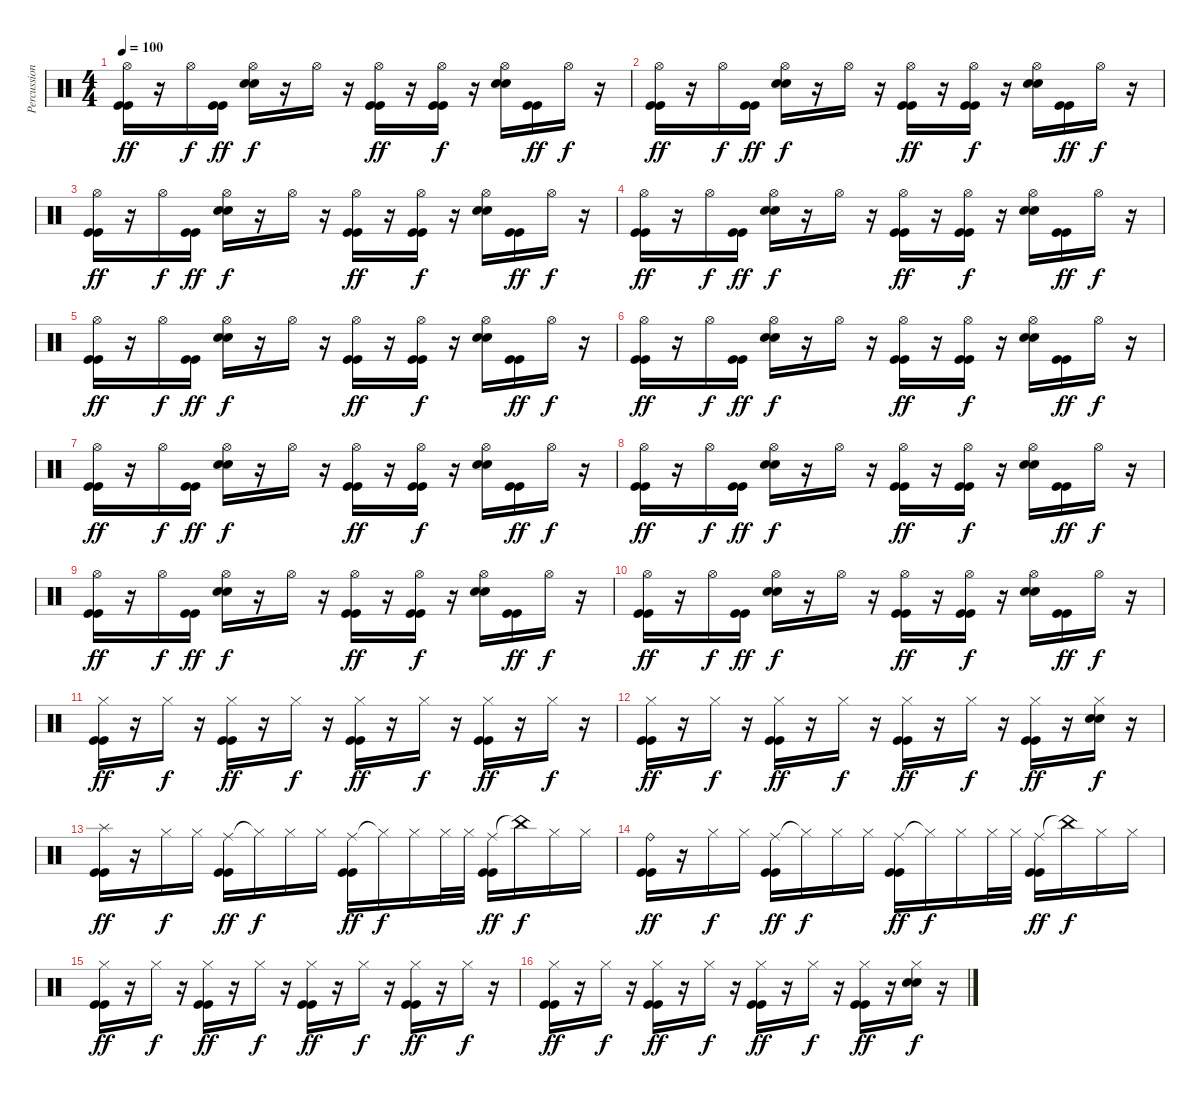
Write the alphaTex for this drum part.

\track ("Percussions" "Percussion") {instrument percussion}
\staff
\articulation defaults
\ts (4 4)
\tempo 100
\clef neutral
\ks c
("Hi-Hat (open)" "Kick (hit)" "Kick (hit)").16{dy ff} r.16 "Hi-Hat (open)".16{dy f} ("Kick (hit)" "Kick (hit)").16{dy ff} ("Hi-Hat (open)" "Electric Snare (hit)" "Electric Snare (hit)").16{dy f} r.16 "Hi-Hat (open)".16 r.16 ("Hi-Hat (open)" "Kick (hit)" "Kick (hit)").16{dy ff} r.16 ("Hi-Hat (open)" "Kick (hit)" "Kick (hit)").16{dy f} r.16 ("Hi-Hat (open)" "Electric Snare (hit)" "Electric Snare (hit)").16 ("Kick (hit)" "Kick (hit)").16{dy ff} "Hi-Hat (open)".16{dy f} r.16 |
("Hi-Hat (open)" "Kick (hit)" "Kick (hit)").16{dy ff} r.16 "Hi-Hat (open)".16{dy f} ("Kick (hit)" "Kick (hit)").16{dy ff} ("Hi-Hat (open)" "Electric Snare (hit)" "Electric Snare (hit)").16{dy f} r.16 "Hi-Hat (open)".16 r.16 ("Hi-Hat (open)" "Kick (hit)" "Kick (hit)").16{dy ff} r.16 ("Hi-Hat (open)" "Kick (hit)" "Kick (hit)").16{dy f} r.16 ("Hi-Hat (open)" "Electric Snare (hit)" "Electric Snare (hit)").16 ("Kick (hit)" "Kick (hit)").16{dy ff} "Hi-Hat (open)".16{dy f} r.16 |
("Hi-Hat (open)" "Kick (hit)" "Kick (hit)").16{dy ff} r.16 "Hi-Hat (open)".16{dy f} ("Kick (hit)" "Kick (hit)").16{dy ff} ("Hi-Hat (open)" "Electric Snare (hit)" "Electric Snare (hit)").16{dy f} r.16 "Hi-Hat (open)".16 r.16 ("Hi-Hat (open)" "Kick (hit)" "Kick (hit)").16{dy ff} r.16 ("Hi-Hat (open)" "Kick (hit)" "Kick (hit)").16{dy f} r.16 ("Hi-Hat (open)" "Electric Snare (hit)" "Electric Snare (hit)").16 ("Kick (hit)" "Kick (hit)").16{dy ff} "Hi-Hat (open)".16{dy f} r.16 |
("Hi-Hat (open)" "Kick (hit)" "Kick (hit)").16{dy ff} r.16 "Hi-Hat (open)".16{dy f} ("Kick (hit)" "Kick (hit)").16{dy ff} ("Hi-Hat (open)" "Electric Snare (hit)" "Electric Snare (hit)").16{dy f} r.16 "Hi-Hat (open)".16 r.16 ("Hi-Hat (open)" "Kick (hit)" "Kick (hit)").16{dy ff} r.16 ("Hi-Hat (open)" "Kick (hit)" "Kick (hit)").16{dy f} r.16 ("Hi-Hat (open)" "Electric Snare (hit)" "Electric Snare (hit)").16 ("Kick (hit)" "Kick (hit)").16{dy ff} "Hi-Hat (open)".16{dy f} r.16 |
("Hi-Hat (open)" "Kick (hit)" "Kick (hit)").16{dy ff} r.16 "Hi-Hat (open)".16{dy f} ("Kick (hit)" "Kick (hit)").16{dy ff} ("Hi-Hat (open)" "Electric Snare (hit)" "Electric Snare (hit)").16{dy f} r.16 "Hi-Hat (open)".16 r.16 ("Hi-Hat (open)" "Kick (hit)" "Kick (hit)").16{dy ff} r.16 ("Hi-Hat (open)" "Kick (hit)" "Kick (hit)").16{dy f} r.16 ("Hi-Hat (open)" "Electric Snare (hit)" "Electric Snare (hit)").16 ("Kick (hit)" "Kick (hit)").16{dy ff} "Hi-Hat (open)".16{dy f} r.16 |
("Hi-Hat (open)" "Kick (hit)" "Kick (hit)").16{dy ff} r.16 "Hi-Hat (open)".16{dy f} ("Kick (hit)" "Kick (hit)").16{dy ff} ("Hi-Hat (open)" "Electric Snare (hit)" "Electric Snare (hit)").16{dy f} r.16 "Hi-Hat (open)".16 r.16 ("Hi-Hat (open)" "Kick (hit)" "Kick (hit)").16{dy ff} r.16 ("Hi-Hat (open)" "Kick (hit)" "Kick (hit)").16{dy f} r.16 ("Hi-Hat (open)" "Electric Snare (hit)" "Electric Snare (hit)").16 ("Kick (hit)" "Kick (hit)").16{dy ff} "Hi-Hat (open)".16{dy f} r.16 |
("Hi-Hat (open)" "Kick (hit)" "Kick (hit)").16{dy ff} r.16 "Hi-Hat (open)".16{dy f} ("Kick (hit)" "Kick (hit)").16{dy ff} ("Hi-Hat (open)" "Electric Snare (hit)" "Electric Snare (hit)").16{dy f} r.16 "Hi-Hat (open)".16 r.16 ("Hi-Hat (open)" "Kick (hit)" "Kick (hit)").16{dy ff} r.16 ("Hi-Hat (open)" "Kick (hit)" "Kick (hit)").16{dy f} r.16 ("Hi-Hat (open)" "Electric Snare (hit)" "Electric Snare (hit)").16 ("Kick (hit)" "Kick (hit)").16{dy ff} "Hi-Hat (open)".16{dy f} r.16 |
("Hi-Hat (open)" "Kick (hit)" "Kick (hit)").16{dy ff} r.16 "Hi-Hat (open)".16{dy f} ("Kick (hit)" "Kick (hit)").16{dy ff} ("Hi-Hat (open)" "Electric Snare (hit)" "Electric Snare (hit)").16{dy f} r.16 "Hi-Hat (open)".16 r.16 ("Hi-Hat (open)" "Kick (hit)" "Kick (hit)").16{dy ff} r.16 ("Hi-Hat (open)" "Kick (hit)" "Kick (hit)").16{dy f} r.16 ("Hi-Hat (open)" "Electric Snare (hit)" "Electric Snare (hit)").16 ("Kick (hit)" "Kick (hit)").16{dy ff} "Hi-Hat (open)".16{dy f} r.16 |
("Hi-Hat (open)" "Kick (hit)" "Kick (hit)").16{dy ff} r.16 "Hi-Hat (open)".16{dy f} ("Kick (hit)" "Kick (hit)").16{dy ff} ("Hi-Hat (open)" "Electric Snare (hit)" "Electric Snare (hit)").16{dy f} r.16 "Hi-Hat (open)".16 r.16 ("Hi-Hat (open)" "Kick (hit)" "Kick (hit)").16{dy ff} r.16 ("Hi-Hat (open)" "Kick (hit)" "Kick (hit)").16{dy f} r.16 ("Hi-Hat (open)" "Electric Snare (hit)" "Electric Snare (hit)").16 ("Kick (hit)" "Kick (hit)").16{dy ff} "Hi-Hat (open)".16{dy f} r.16 |
("Hi-Hat (open)" "Kick (hit)" "Kick (hit)").16{dy ff} r.16 "Hi-Hat (open)".16{dy f} ("Kick (hit)" "Kick (hit)").16{dy ff} ("Hi-Hat (open)" "Electric Snare (hit)" "Electric Snare (hit)").16{dy f} r.16 "Hi-Hat (open)".16 r.16 ("Hi-Hat (open)" "Kick (hit)" "Kick (hit)").16{dy ff} r.16 ("Hi-Hat (open)" "Kick (hit)" "Kick (hit)").16{dy f} r.16 ("Hi-Hat (open)" "Electric Snare (hit)" "Electric Snare (hit)").16 ("Kick (hit)" "Kick (hit)").16{dy ff} "Hi-Hat (open)".16{dy f} r.16 |
("Hi-Hat (closed)" "Kick (hit)" "Kick (hit)").16{dy ff} r.16 "Hi-Hat (closed)".16{dy f} r.16 ("Hi-Hat (closed)" "Kick (hit)" "Kick (hit)").16{dy ff} r.16 "Hi-Hat (closed)".16{dy f} r.16 ("Hi-Hat (closed)" "Kick (hit)" "Kick (hit)").16{dy ff} r.16 "Hi-Hat (closed)".16{dy f} r.16 ("Hi-Hat (closed)" "Kick (hit)" "Kick (hit)").16{dy ff} r.16 "Hi-Hat (closed)".16{dy f} r.16 |
("Hi-Hat (closed)" "Kick (hit)" "Kick (hit)").16{dy ff} r.16 "Hi-Hat (closed)".16{dy f} r.16 ("Hi-Hat (closed)" "Kick (hit)" "Kick (hit)").16{dy ff} r.16 "Hi-Hat (closed)".16{dy f} r.16 ("Hi-Hat (closed)" "Kick (hit)" "Kick (hit)").16{dy ff} r.16 "Hi-Hat (closed)".16{dy f} r.16 ("Hi-Hat (closed)" "Kick (hit)" "Kick (hit)").16{dy ff} r.16 ("Hi-Hat (closed)" "Electric Snare (hit)" "Electric Snare (hit)").16{dy f} r.16 |
("Splash (hit)" "Kick (hit)" "Kick (hit)").16{dy ff} r.16 "Hi-Hat (closed)".16{dy f} "Hi-Hat (closed)".16 ("Ride (middle)" "Kick (hit)" "Kick (hit)").16{dy ff} "Hi-Hat (closed)"{t}.16{dy f} "Hi-Hat (closed)".16 "Hi-Hat (closed)".16 ("Ride (middle)" "Kick (hit)" "Kick (hit)").16{dy ff} "Hi-Hat (closed)"{t}.16{dy f} "Hi-Hat (closed)".16 "Hi-Hat (closed)".32 "Hi-Hat (closed)".32 ("Ride (middle)" "Kick (hit)" "Kick (hit)").16{dy ff} "China (hit)"{t}.16{dy f} "Hi-Hat (closed)".16 "Hi-Hat (closed)".16 |
("Ride (bell)" "Kick (hit)" "Kick (hit)").16{dy ff} r.16 "Hi-Hat (closed)".16{dy f} "Hi-Hat (closed)".16 ("Ride (middle)" "Kick (hit)" "Kick (hit)").16{dy ff} "Hi-Hat (closed)"{t}.16{dy f} "Hi-Hat (closed)".16 "Hi-Hat (closed)".16 ("Ride (middle)" "Kick (hit)" "Kick (hit)").16{dy ff} "Hi-Hat (closed)"{t}.16{dy f} "Hi-Hat (closed)".16 "Hi-Hat (closed)".32 "Hi-Hat (closed)".32 ("Ride (middle)" "Kick (hit)" "Kick (hit)").16{dy ff} "China (hit)"{t}.16{dy f} "Hi-Hat (closed)".16 "Hi-Hat (closed)".16 |
("Hi-Hat (closed)" "Kick (hit)" "Kick (hit)").16{dy ff} r.16 "Hi-Hat (closed)".16{dy f} r.16 ("Hi-Hat (closed)" "Kick (hit)" "Kick (hit)").16{dy ff} r.16 "Hi-Hat (closed)".16{dy f} r.16 ("Hi-Hat (closed)" "Kick (hit)" "Kick (hit)").16{dy ff} r.16 "Hi-Hat (closed)".16{dy f} r.16 ("Hi-Hat (closed)" "Kick (hit)" "Kick (hit)").16{dy ff} r.16 "Hi-Hat (closed)".16{dy f} r.16 |
("Hi-Hat (closed)" "Kick (hit)" "Kick (hit)").16{dy ff} r.16 "Hi-Hat (closed)".16{dy f} r.16 ("Hi-Hat (closed)" "Kick (hit)" "Kick (hit)").16{dy ff} r.16 "Hi-Hat (closed)".16{dy f} r.16 ("Hi-Hat (closed)" "Kick (hit)" "Kick (hit)").16{dy ff} r.16 "Hi-Hat (closed)".16{dy f} r.16 ("Hi-Hat (closed)" "Kick (hit)" "Kick (hit)").16{dy ff} r.16 ("Hi-Hat (closed)" "Electric Snare (hit)" "Electric Snare (hit)").16{dy f} r.16
